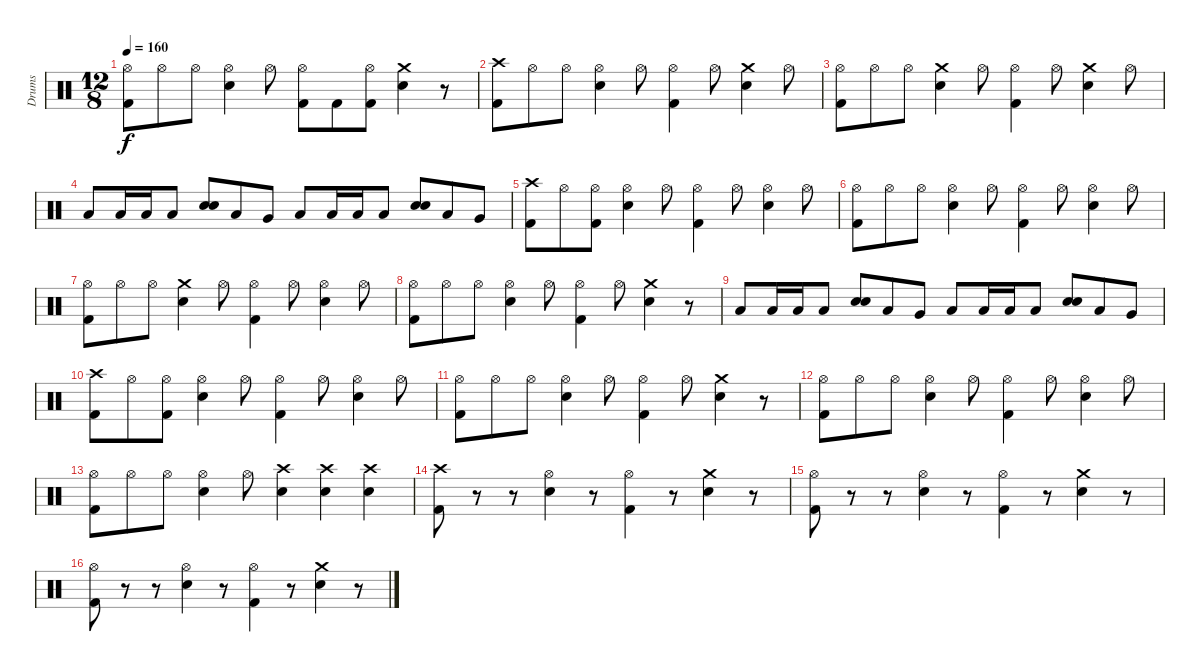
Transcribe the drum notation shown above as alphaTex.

\track ("Drums" "Drums") {instrument percussion}
\staff {score}
\articulation defaults
\ts (12 8)
\tempo 160
\clef neutral
\ks c
("Kick (hit) 2" "Hi-Hat (open)").8{dy f} "Hi-Hat (open)".8 "Hi-Hat (open)".8 ("Snare (hit) 2" "Hi-Hat (open)").4 "Hi-Hat (open)".8 ("Kick (hit) 2" "Hi-Hat (open)").8 "Kick (hit) 2".8 ("Kick (hit) 2" "Hi-Hat (open)").8 ("Snare (hit) 2" "Crash medium (hit)").4 r.8 |
("Kick (hit) 2" "Crash high (hit)").8 "Hi-Hat (open)".8 "Hi-Hat (open)".8 ("Snare (hit) 2" "Hi-Hat (open)").4 "Hi-Hat (open)".8 ("Kick (hit) 2" "Hi-Hat (open)").4 "Hi-Hat (open)".8 ("Snare (hit) 2" "Crash medium (hit)").4 "Hi-Hat (open)".8 |
("Kick (hit) 2" "Hi-Hat (open)").8 "Hi-Hat (open)".8 "Hi-Hat (open)".8 ("Snare (hit) 2" "Crash medium (hit)").4 "Hi-Hat (open)".8 ("Kick (hit) 2" "Hi-Hat (open)").4 "Hi-Hat (open)".8 ("Snare (hit) 2" "Crash medium (hit)").4 "Hi-Hat (open)".8 |
"Low Tom (hit)".8 "Low Tom (hit)".16 "Low Tom (hit)".16 "Low Tom (hit)".8 ("Snare (hit) 2" "Snare (hit) 2").8 "Low Tom (hit)".8 "Very Low Tom (hit)".8 "Low Tom (hit)".8 "Low Tom (hit)".16 "Low Tom (hit)".16 "Low Tom (hit)".8 ("Snare (hit) 2" "Snare (hit) 2").8 "Low Tom (hit)".8 "Very Low Tom (hit)".8 |
("Kick (hit) 2" "Crash high (hit)").8 "Hi-Hat (open)".8 ("Kick (hit) 2" "Hi-Hat (open)").8 ("Snare (hit) 2" "Hi-Hat (open)").4 "Hi-Hat (open)".8 ("Kick (hit) 2" "Hi-Hat (open)").4 "Hi-Hat (open)".8 ("Snare (hit) 2" "Hi-Hat (open)").4 "Hi-Hat (open)".8 |
("Kick (hit) 2" "Hi-Hat (open)").8 "Hi-Hat (open)".8 "Hi-Hat (open)".8 ("Snare (hit) 2" "Hi-Hat (open)").4 "Hi-Hat (open)".8 ("Kick (hit) 2" "Hi-Hat (open)").4 "Hi-Hat (open)".8 ("Snare (hit) 2" "Hi-Hat (open)").4 "Hi-Hat (open)".8 |
("Kick (hit) 2" "Hi-Hat (open)").8 "Hi-Hat (open)".8 "Hi-Hat (open)".8 ("Snare (hit) 2" "Crash medium (hit)").4 "Hi-Hat (open)".8 ("Kick (hit) 2" "Hi-Hat (open)").4 "Hi-Hat (open)".8 ("Snare (hit) 2" "Hi-Hat (open)").4 "Hi-Hat (open)".8 |
("Kick (hit) 2" "Hi-Hat (open)").8 "Hi-Hat (open)".8 "Hi-Hat (open)".8 ("Snare (hit) 2" "Hi-Hat (open)").4 "Hi-Hat (open)".8 ("Kick (hit) 2" "Hi-Hat (open)").4 "Hi-Hat (open)".8 ("Snare (hit) 2" "Crash medium (hit)").4 r.8 |
"Low Tom (hit)".8 "Low Tom (hit)".16 "Low Tom (hit)".16 "Low Tom (hit)".8 ("Snare (hit) 2" "Snare (hit) 2").8 "Low Tom (hit)".8 "Very Low Tom (hit)".8 "Low Tom (hit)".8 "Low Tom (hit)".16 "Low Tom (hit)".16 "Low Tom (hit)".8 ("Snare (hit) 2" "Snare (hit) 2").8 "Low Tom (hit)".8 "Very Low Tom (hit)".8 |
("Kick (hit) 2" "Crash high (hit)").8 "Hi-Hat (open)".8 ("Kick (hit) 2" "Hi-Hat (open)").8 ("Snare (hit) 2" "Hi-Hat (open)").4 "Hi-Hat (open)".8 ("Kick (hit) 2" "Hi-Hat (open)").4 "Hi-Hat (open)".8 ("Snare (hit) 2" "Hi-Hat (open)").4 "Hi-Hat (open)".8 |
("Kick (hit) 2" "Hi-Hat (open)").8 "Hi-Hat (open)".8 "Hi-Hat (open)".8 ("Snare (hit) 2" "Hi-Hat (open)").4 "Hi-Hat (open)".8 ("Kick (hit) 2" "Hi-Hat (open)").4 "Hi-Hat (open)".8 ("Snare (hit) 2" "Crash medium (hit)").4 r.8 |
("Kick (hit) 2" "Hi-Hat (open)").8 "Hi-Hat (open)".8 "Hi-Hat (open)".8 ("Snare (hit) 2" "Hi-Hat (open)").4 "Hi-Hat (open)".8 ("Kick (hit) 2" "Hi-Hat (open)").4 "Hi-Hat (open)".8 ("Snare (hit) 2" "Hi-Hat (open)").4 "Hi-Hat (open)".8 |
("Kick (hit) 2" "Hi-Hat (open)").8 "Hi-Hat (open)".8 "Hi-Hat (open)".8 ("Snare (hit) 2" "Hi-Hat (open)").4 "Hi-Hat (open)".8 ("Snare (hit) 2" "Crash high (hit)").4 ("Snare (hit) 2" "Crash high (hit)").4 ("Snare (hit) 2" "Crash high (hit)").4 |
("Kick (hit) 2" "Crash high (hit)").8 r.8 r.8 ("Snare (hit) 2" "Hi-Hat (open)").4 r.8 ("Kick (hit) 2" "Hi-Hat (open)").4 r.8 ("Snare (hit) 2" "Crash medium (hit)").4 r.8 |
("Kick (hit) 2" "Hi-Hat (open)").8 r.8 r.8 ("Snare (hit) 2" "Hi-Hat (open)").4 r.8 ("Kick (hit) 2" "Hi-Hat (open)").4 r.8 ("Snare (hit) 2" "Crash medium (hit)").4 r.8 |
("Kick (hit) 2" "Hi-Hat (open)").8 r.8 r.8 ("Snare (hit) 2" "Hi-Hat (open)").4 r.8 ("Kick (hit) 2" "Hi-Hat (open)").4 r.8 ("Snare (hit) 2" "Crash medium (hit)").4 r.8
